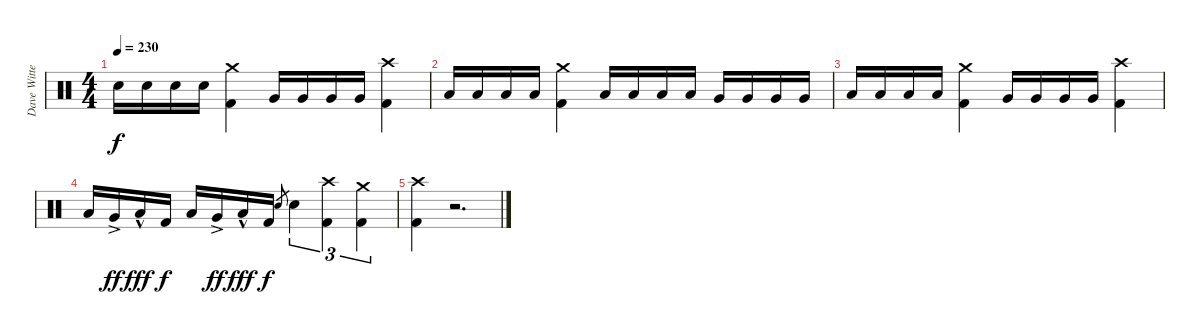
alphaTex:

\track ("Dave Witte" "Dave Witte") {instrument percussion}
\staff {score}
\articulation defaults
\ts (4 4)
\tempo 230
\clef neutral
\ks c "Electric Snare (hit)".16{dy f} "Electric Snare (hit)".16 "Electric Snare (hit)".16 "Electric Snare (hit)".16
("Crash medium (hit)" "Kick (hit) 2").4 "Very Low Tom (hit)".16 "Very Low Tom (hit)".16 "Very Low Tom (hit)".16 "Very Low Tom (hit)".16 ("Crash high (hit)" "Kick (hit) 2").4 |
"Low Floor Tom (hit)".16 "Low Floor Tom (hit)".16 "Low Floor Tom (hit)".16 "Low Floor Tom (hit)".16 ("Crash medium (hit)" "Kick (hit) 2").4 "Low Tom (hit)".16 "Low Tom (hit)".16 "Low Tom (hit)".16 "Low Tom (hit)".16 "Very Low Tom (hit)".16 "Very Low Tom (hit)".16 "Very Low Tom (hit)".16 "Very Low Tom (hit)".16 |
"Low Floor Tom (hit)".16 "Low Floor Tom (hit)".16 "Low Floor Tom (hit)".16 "Low Floor Tom (hit)".16 ("Crash medium (hit)" "Kick (hit) 2").4 "Very Low Tom (hit)".16 "Very Low Tom (hit)".16 "Very Low Tom (hit)".16 "Very Low Tom (hit)".16 ("Crash high (hit)" "Kick (hit) 2").4 |
"Low Floor Tom (hit)".16 "Very Low Tom (hit)"{ac}.16{dy ff} "Low Floor Tom (hit)"{hac}.16{dy fff} "Kick (hit) 2".16{dy f} "Low Floor Tom (hit)".16 "Very Low Tom (hit)"{ac}.16{dy ff} "Low Floor Tom (hit)"{hac}.16{dy fff} "Kick (hit) 2".16{dy f} "Electric Snare (hit)".8{gr} "Electric Snare (hit)".4{tu (3 2)} ("Crash high (hit)" "Kick (hit) 2").4{tu (3 2)} ("Crash medium (hit)" "Kick (hit) 2").4{tu (3 2)} |
("Crash high (hit)" "Kick (hit) 2").4 r.2{d volume 0}
